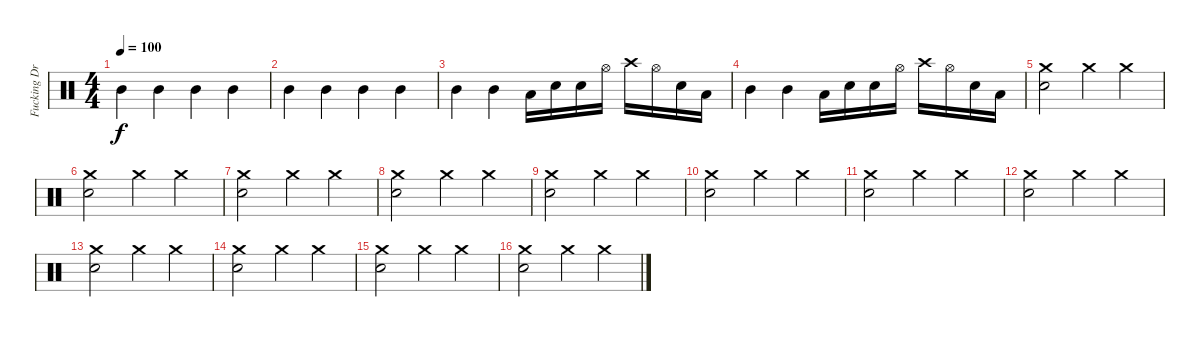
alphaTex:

\track ("Fucking Drums Thats It" "Fucking Dr") {instrument percussion}
\staff {score}
\articulation defaults
\ts (4 4)
\tempo 100
\clef neutral
\ks c "Mid Tom (hit)".4{dy f} "Mid Tom (hit)".4 "Mid Tom (hit)".4 "Mid Tom (hit)".4
|
"Mid Tom (hit)".4 "Mid Tom (hit)".4 "Mid Tom (hit)".4 "Mid Tom (hit)".4 |
"Mid Tom (hit)".4 "Mid Tom (hit)".4 "Low Tom (hit)".16 "Snare (hit) 2".16 "Snare (hit) 2".16 "Hi-Hat (open)".16 "Crash high (hit)".16 "Hi-Hat (open)".16 "Snare (hit) 2".16 "Low Tom (hit)".16 |
"Mid Tom (hit)".4 "Mid Tom (hit)".4 "Low Tom (hit)".16 "Snare (hit) 2".16 "Snare (hit) 2".16 "Hi-Hat (open)".16 "Crash high (hit)".16 "Hi-Hat (open)".16 "Snare (hit) 2".16 "Low Tom (hit)".16 |
("Crash medium (hit)" "Snare (hit) 2").2 "Crash medium (hit)".4 "Crash medium (hit)".4 |
("Crash medium (hit)" "Snare (hit) 2").2 "Crash medium (hit)".4 "Crash medium (hit)".4 |
("Crash medium (hit)" "Snare (hit) 2").2 "Crash medium (hit)".4 "Crash medium (hit)".4 |
("Crash medium (hit)" "Snare (hit) 2").2 "Crash medium (hit)".4 "Crash medium (hit)".4 |
("Crash medium (hit)" "Snare (hit) 2").2 "Crash medium (hit)".4 "Crash medium (hit)".4 |
("Crash medium (hit)" "Snare (hit) 2").2 "Crash medium (hit)".4 "Crash medium (hit)".4 |
("Crash medium (hit)" "Snare (hit) 2").2 "Crash medium (hit)".4 "Crash medium (hit)".4 |
("Crash medium (hit)" "Snare (hit) 2").2 "Crash medium (hit)".4 "Crash medium (hit)".4 |
("Crash medium (hit)" "Snare (hit) 2").2 "Crash medium (hit)".4 "Crash medium (hit)".4 |
("Crash medium (hit)" "Snare (hit) 2").2 "Crash medium (hit)".4 "Crash medium (hit)".4 |
("Crash medium (hit)" "Snare (hit) 2").2 "Crash medium (hit)".4 "Crash medium (hit)".4 |
("Crash medium (hit)" "Snare (hit) 2").2 "Crash medium (hit)".4 "Crash medium (hit)".4
